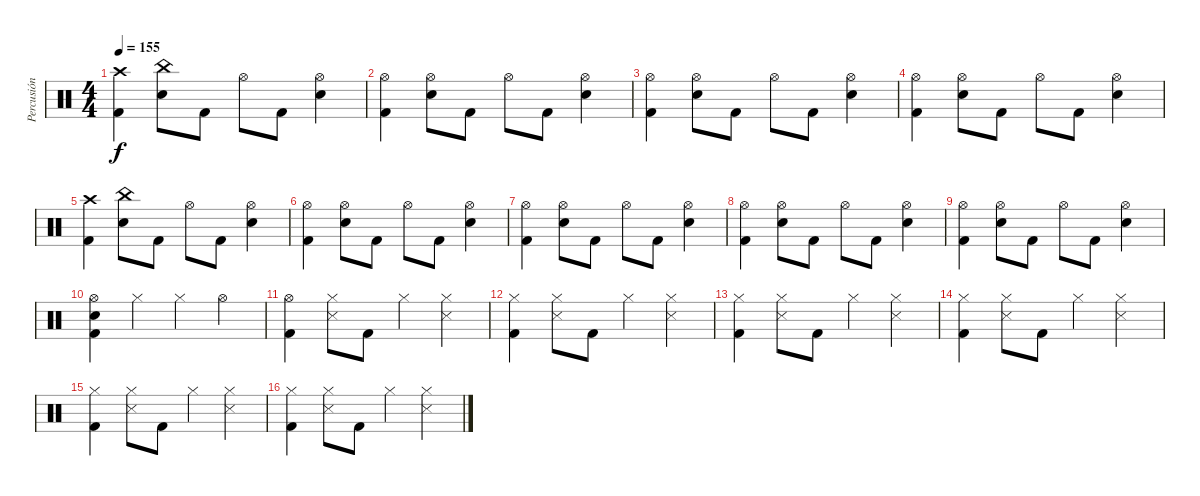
\track ("Percusión" "Percusión") {instrument percussion}
\staff {score}
\articulation defaults
\ts (4 4)
\tempo 155
\clef neutral
\ks c
("Crash high (hit)" "Kick (hit) 2").4{dy f} ("China (hit)" "Electric Snare (hit)").8 "Kick (hit) 2".8 "Hi-Hat (open)".8 "Kick (hit) 2".8 ("Hi-Hat (open)" "Electric Snare (hit)").4 |
("Hi-Hat (open)" "Kick (hit) 2").4 ("Hi-Hat (open)" "Electric Snare (hit)").8 "Kick (hit) 2".8 "Hi-Hat (open)".8 "Kick (hit) 2".8 ("Hi-Hat (open)" "Electric Snare (hit)").4 |
("Hi-Hat (open)" "Kick (hit) 2").4 ("Hi-Hat (open)" "Electric Snare (hit)").8 "Kick (hit) 2".8 "Hi-Hat (open)".8 "Kick (hit) 2".8 ("Hi-Hat (open)" "Electric Snare (hit)").4 |
("Hi-Hat (open)" "Kick (hit) 2").4 ("Hi-Hat (open)" "Electric Snare (hit)").8 "Kick (hit) 2".8 "Hi-Hat (open)".8 "Kick (hit) 2".8 ("Hi-Hat (open)" "Electric Snare (hit)").4 |
("Crash high (hit)" "Kick (hit) 2").4 ("China (hit)" "Electric Snare (hit)").8 "Kick (hit) 2".8 "Hi-Hat (open)".8 "Kick (hit) 2".8 ("Hi-Hat (open)" "Electric Snare (hit)").4 |
("Hi-Hat (open)" "Kick (hit) 2").4 ("Hi-Hat (open)" "Electric Snare (hit)").8 "Kick (hit) 2".8 "Hi-Hat (open)".8 "Kick (hit) 2".8 ("Hi-Hat (open)" "Electric Snare (hit)").4 |
("Hi-Hat (open)" "Kick (hit) 2").4 ("Hi-Hat (open)" "Electric Snare (hit)").8 "Kick (hit) 2".8 "Hi-Hat (open)".8 "Kick (hit) 2".8 ("Hi-Hat (open)" "Electric Snare (hit)").4 |
("Hi-Hat (open)" "Kick (hit) 2").4 ("Hi-Hat (open)" "Electric Snare (hit)").8 "Kick (hit) 2".8 "Hi-Hat (open)".8 "Kick (hit) 2".8 ("Hi-Hat (open)" "Electric Snare (hit)").4 |
("Hi-Hat (open)" "Kick (hit) 2").4 ("Hi-Hat (open)" "Electric Snare (hit)").8 "Kick (hit) 2".8 "Hi-Hat (open)".8 "Kick (hit) 2".8 ("Hi-Hat (open)" "Electric Snare (hit)").4 |
("Hi-Hat (open)" "Electric Snare (hit)" "Kick (hit) 2").4 "Hi-Hat (closed)".4 "Hi-Hat (closed)".4 "Hi-Hat (open)".4 |
("Hi-Hat (open)" "Kick (hit) 2").4 ("Hi-Hat (closed)" "Snare (side stick) 3").8 "Kick (hit) 2".8 "Hi-Hat (closed)".4 ("Hi-Hat (closed)" "Snare (side stick) 3").4 |
("Hi-Hat (closed)" "Kick (hit) 2").4 ("Hi-Hat (closed)" "Snare (side stick) 3").8 "Kick (hit) 2".8 "Hi-Hat (closed)".4 ("Hi-Hat (closed)" "Snare (side stick) 3").4 |
("Hi-Hat (closed)" "Kick (hit) 2").4 ("Hi-Hat (closed)" "Snare (side stick) 3").8 "Kick (hit) 2".8 "Hi-Hat (closed)".4 ("Hi-Hat (closed)" "Snare (side stick) 3").4 |
("Hi-Hat (closed)" "Kick (hit) 2").4 ("Hi-Hat (closed)" "Snare (side stick) 3").8 "Kick (hit) 2".8 "Hi-Hat (closed)".4 ("Hi-Hat (closed)" "Snare (side stick) 3").4 |
("Hi-Hat (closed)" "Kick (hit) 2").4 ("Hi-Hat (closed)" "Snare (side stick) 3").8 "Kick (hit) 2".8 "Hi-Hat (closed)".4 ("Hi-Hat (closed)" "Snare (side stick) 3").4 |
("Hi-Hat (closed)" "Kick (hit) 2").4 ("Hi-Hat (closed)" "Snare (side stick) 3").8 "Kick (hit) 2".8 "Hi-Hat (closed)".4 ("Hi-Hat (closed)" "Snare (side stick) 3").4
